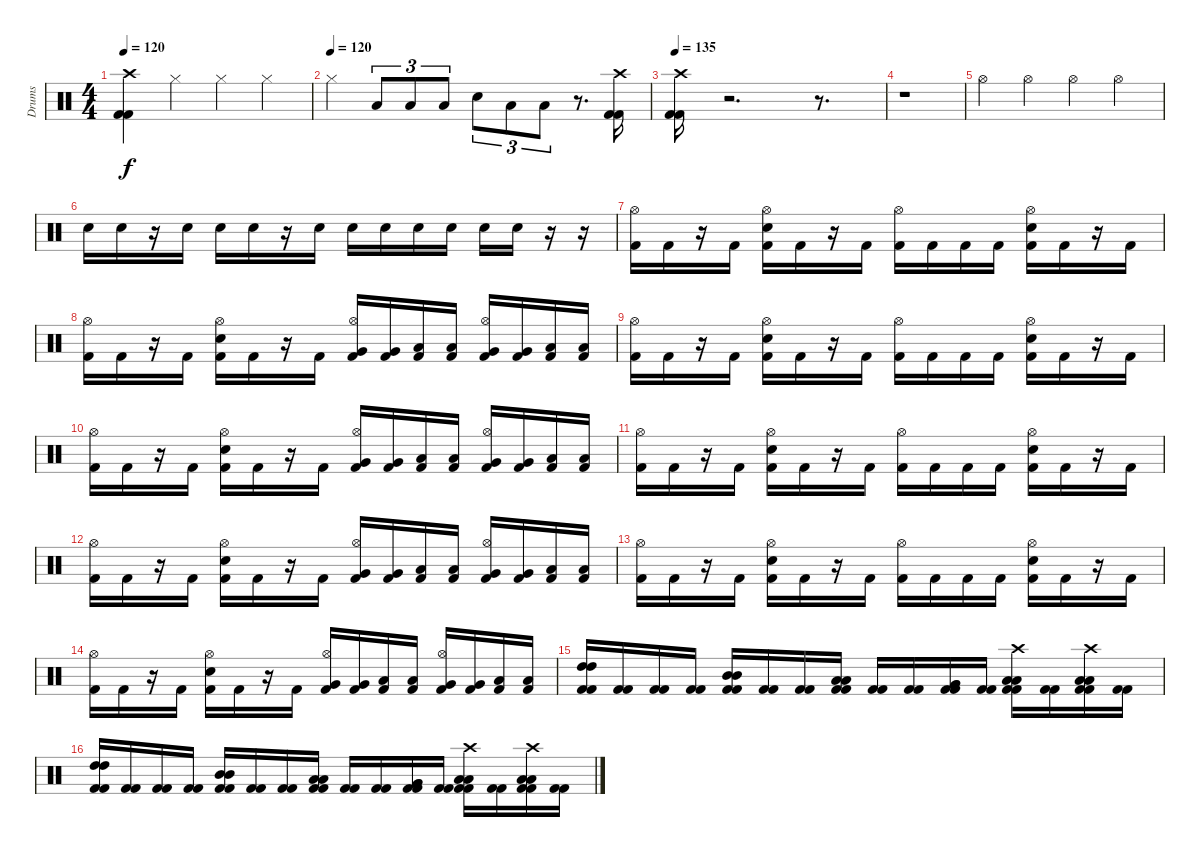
\track ("Drums" "Drums") {instrument percussion}
\staff {score}
\articulation defaults
\ts (4 4)
\tempo 120
\clef neutral
\ks c
("Crash high (hit)" "Kick (hit) 2" "Kick (hit) 2").4{dy f volume 16} "Hi-Hat (closed)".4{volume 10} "Hi-Hat (closed)".4 "Hi-Hat (closed)".4 |
\tempo (120)
"Hi-Hat (closed)".4 "Low Tom (hit)".8{tu (3 2) volume 16} "Low Tom (hit)".8{tu (3 2)} "Low Tom (hit)".8{tu (3 2)} "Electric Snare (hit)".8{tu (3 2)} "Low Tom (hit)".8{tu (3 2)} "Low Tom (hit)".8{tu (3 2)} r.8{d} ("Crash high (hit)" "Kick (hit) 2" "Kick (hit) 2").16 |
\tempo 135
("Crash high (hit)" "Kick (hit) 2" "Kick (hit) 2").16 r.2{d} r.8{d} |
r.1 |
"Hi-Hat (open)".4 "Hi-Hat (open)".4 "Hi-Hat (open)".4 "Hi-Hat (open)".4 |
"Electric Snare (hit)".16 "Electric Snare (hit)".16 r.16 "Electric Snare (hit)".16 "Electric Snare (hit)".16 "Electric Snare (hit)".16 r.16 "Electric Snare (hit)".16 "Electric Snare (hit)".16 "Electric Snare (hit)".16 "Electric Snare (hit)".16 "Electric Snare (hit)".16 "Electric Snare (hit)".16 "Electric Snare (hit)".16 r.16 r.16 |
("Hi-Hat (open)" "Kick (hit) 2").16 "Kick (hit) 2".16 r.16 "Kick (hit) 2".16 ("Hi-Hat (open)" "Electric Snare (hit)" "Kick (hit) 2").16 "Kick (hit) 2".16 r.16 "Kick (hit) 2".16 ("Hi-Hat (open)" "Kick (hit) 2").16 "Kick (hit) 2".16 "Kick (hit) 2".16 "Kick (hit) 2".16 ("Hi-Hat (open)" "Electric Snare (hit)" "Kick (hit) 2").16 "Kick (hit) 2".16 r.16 "Kick (hit) 2".16 |
("Hi-Hat (open)" "Kick (hit) 2").16 "Kick (hit) 2".16 r.16 "Kick (hit) 2".16 ("Hi-Hat (open)" "Electric Snare (hit)" "Kick (hit) 2").16 "Kick (hit) 2".16 r.16 "Kick (hit) 2".16 ("Hi-Hat (open)" "Very Low Tom (hit)" "Kick (hit) 2").16 ("Very Low Tom (hit)" "Kick (hit) 2").16 ("Low Floor Tom (hit)" "Kick (hit) 2").16 ("Low Floor Tom (hit)" "Kick (hit) 2").16 ("Hi-Hat (open)" "Very Low Tom (hit)" "Kick (hit) 2").16 ("Very Low Tom (hit)" "Kick (hit) 2").16 ("Low Floor Tom (hit)" "Kick (hit) 2").16 ("Low Floor Tom (hit)" "Kick (hit) 2").16 |
("Hi-Hat (open)" "Kick (hit) 2").16 "Kick (hit) 2".16 r.16 "Kick (hit) 2".16 ("Hi-Hat (open)" "Electric Snare (hit)" "Kick (hit) 2").16 "Kick (hit) 2".16 r.16 "Kick (hit) 2".16 ("Hi-Hat (open)" "Kick (hit) 2").16 "Kick (hit) 2".16 "Kick (hit) 2".16 "Kick (hit) 2".16 ("Hi-Hat (open)" "Electric Snare (hit)" "Kick (hit) 2").16 "Kick (hit) 2".16 r.16 "Kick (hit) 2".16 |
("Hi-Hat (open)" "Kick (hit) 2").16 "Kick (hit) 2".16 r.16 "Kick (hit) 2".16 ("Hi-Hat (open)" "Electric Snare (hit)" "Kick (hit) 2").16 "Kick (hit) 2".16 r.16 "Kick (hit) 2".16 ("Hi-Hat (open)" "Very Low Tom (hit)" "Kick (hit) 2").16 ("Very Low Tom (hit)" "Kick (hit) 2").16 ("Low Floor Tom (hit)" "Kick (hit) 2").16 ("Low Floor Tom (hit)" "Kick (hit) 2").16 ("Hi-Hat (open)" "Very Low Tom (hit)" "Kick (hit) 2").16 ("Very Low Tom (hit)" "Kick (hit) 2").16 ("Low Floor Tom (hit)" "Kick (hit) 2").16 ("Low Floor Tom (hit)" "Kick (hit) 2").16 |
("Hi-Hat (open)" "Kick (hit) 2").16 "Kick (hit) 2".16 r.16 "Kick (hit) 2".16 ("Hi-Hat (open)" "Electric Snare (hit)" "Kick (hit) 2").16 "Kick (hit) 2".16 r.16 "Kick (hit) 2".16 ("Hi-Hat (open)" "Kick (hit) 2").16 "Kick (hit) 2".16 "Kick (hit) 2".16 "Kick (hit) 2".16 ("Hi-Hat (open)" "Electric Snare (hit)" "Kick (hit) 2").16 "Kick (hit) 2".16 r.16 "Kick (hit) 2".16 |
("Hi-Hat (open)" "Kick (hit) 2").16 "Kick (hit) 2".16 r.16 "Kick (hit) 2".16 ("Hi-Hat (open)" "Electric Snare (hit)" "Kick (hit) 2").16 "Kick (hit) 2".16 r.16 "Kick (hit) 2".16 ("Hi-Hat (open)" "Very Low Tom (hit)" "Kick (hit) 2").16 ("Very Low Tom (hit)" "Kick (hit) 2").16 ("Low Floor Tom (hit)" "Kick (hit) 2").16 ("Low Floor Tom (hit)" "Kick (hit) 2").16 ("Hi-Hat (open)" "Very Low Tom (hit)" "Kick (hit) 2").16 ("Very Low Tom (hit)" "Kick (hit) 2").16 ("Low Floor Tom (hit)" "Kick (hit) 2").16 ("Low Floor Tom (hit)" "Kick (hit) 2").16 |
("Hi-Hat (open)" "Kick (hit) 2").16 "Kick (hit) 2".16 r.16 "Kick (hit) 2".16 ("Hi-Hat (open)" "Electric Snare (hit)" "Kick (hit) 2").16 "Kick (hit) 2".16 r.16 "Kick (hit) 2".16 ("Hi-Hat (open)" "Kick (hit) 2").16 "Kick (hit) 2".16 "Kick (hit) 2".16 "Kick (hit) 2".16 ("Hi-Hat (open)" "Electric Snare (hit)" "Kick (hit) 2").16 "Kick (hit) 2".16 r.16 "Kick (hit) 2".16 |
("Hi-Hat (open)" "Kick (hit) 2").16 "Kick (hit) 2".16 r.16 "Kick (hit) 2".16 ("Hi-Hat (open)" "Electric Snare (hit)" "Kick (hit) 2").16 "Kick (hit) 2".16 r.16 "Kick (hit) 2".16 ("Hi-Hat (open)" "Very Low Tom (hit)" "Kick (hit) 2").16 ("Very Low Tom (hit)" "Kick (hit) 2").16 ("Low Floor Tom (hit)" "Kick (hit) 2").16 ("Low Floor Tom (hit)" "Kick (hit) 2").16 ("Hi-Hat (open)" "Very Low Tom (hit)" "Kick (hit) 2").16 ("Very Low Tom (hit)" "Kick (hit) 2").16 ("Low Floor Tom (hit)" "Kick (hit) 2").16 ("Low Floor Tom (hit)" "Kick (hit) 2").16 |
("High Tom (hit)" "High Tom (hit)" "Kick (hit) 2" "Kick (hit) 2").16 ("Kick (hit) 2" "Kick (hit) 2").16 ("Kick (hit) 2" "Kick (hit) 2").16 ("Kick (hit) 2" "Kick (hit) 2").16 ("Mid Tom (hit)" "Mid Tom (hit)" "Kick (hit) 2" "Kick (hit) 2").16 ("Kick (hit) 2" "Kick (hit) 2").16 ("Kick (hit) 2" "Kick (hit) 2").16 ("Low Tom (hit)" "Low Tom (hit)" "Kick (hit) 2" "Kick (hit) 2").16 ("Kick (hit) 2" "Kick (hit) 2").16 ("Kick (hit) 2" "Kick (hit) 2").16 ("Very Low Tom (hit)" "Very Low Tom (hit)" "Kick (hit) 2" "Kick (hit) 2").16 ("Kick (hit) 2" "Kick (hit) 2").16 ("Crash high (hit)" "Low Floor Tom (hit)" "Low Floor Tom (hit)" "Kick (hit) 2" "Kick (hit) 2").16 ("Kick (hit) 2" "Kick (hit) 2").16 ("Crash high (hit)" "Low Floor Tom (hit)" "Low Floor Tom (hit)" "Kick (hit) 2" "Kick (hit) 2").16 ("Kick (hit) 2" "Kick (hit) 2").16 |
("High Tom (hit)" "High Tom (hit)" "Kick (hit) 2" "Kick (hit) 2").16 ("Kick (hit) 2" "Kick (hit) 2").16 ("Kick (hit) 2" "Kick (hit) 2").16 ("Kick (hit) 2" "Kick (hit) 2").16 ("Mid Tom (hit)" "Mid Tom (hit)" "Kick (hit) 2" "Kick (hit) 2").16 ("Kick (hit) 2" "Kick (hit) 2").16 ("Kick (hit) 2" "Kick (hit) 2").16 ("Low Tom (hit)" "Low Tom (hit)" "Kick (hit) 2" "Kick (hit) 2").16 ("Kick (hit) 2" "Kick (hit) 2").16 ("Kick (hit) 2" "Kick (hit) 2").16 ("Very Low Tom (hit)" "Very Low Tom (hit)" "Kick (hit) 2" "Kick (hit) 2").16 ("Kick (hit) 2" "Kick (hit) 2").16 ("Crash high (hit)" "Low Floor Tom (hit)" "Low Floor Tom (hit)" "Kick (hit) 2" "Kick (hit) 2").16 ("Kick (hit) 2" "Kick (hit) 2").16 ("Crash high (hit)" "Low Floor Tom (hit)" "Low Floor Tom (hit)" "Kick (hit) 2" "Kick (hit) 2").16 ("Kick (hit) 2" "Kick (hit) 2").16
